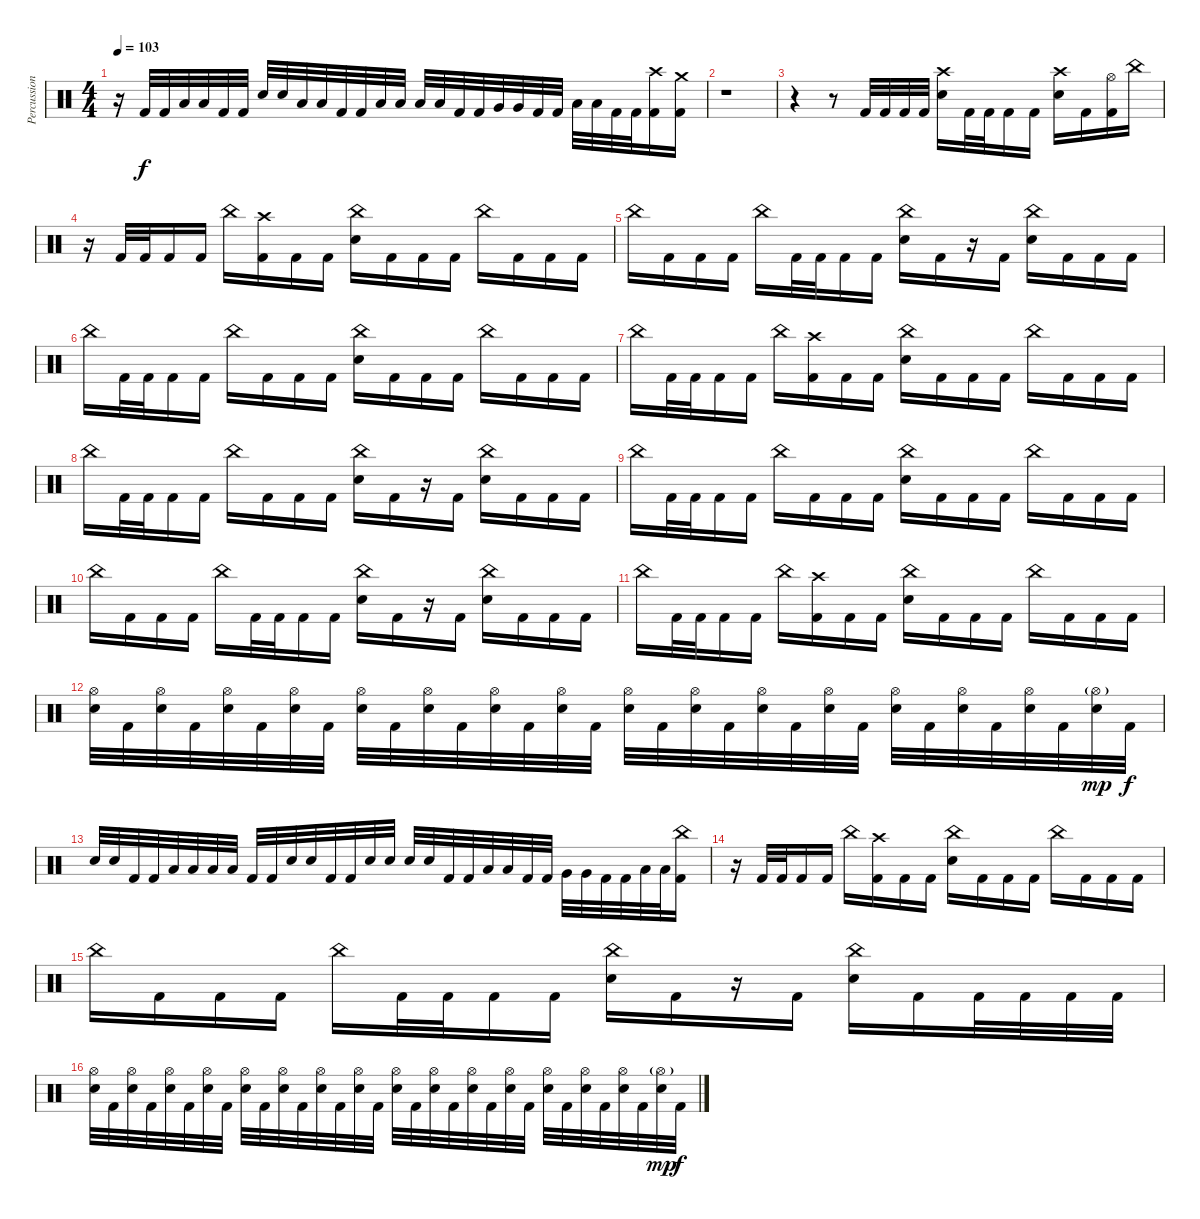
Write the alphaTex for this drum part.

\track ("Percussion" "Percussion") {instrument percussion}
\staff {score}
\articulation defaults
\ts (4 4)
\tempo 103
\clef neutral
\ks c
r.16{dy f} "Kick (hit) 2".32 "Kick (hit) 2".32 "Low Tom (hit)".32 "Low Tom (hit)".32 "Kick (hit) 2".32 "Kick (hit) 2".32 "Snare (hit) 2".32 "Snare (hit) 2".32 "Low Tom (hit)".32 "Low Tom (hit)".32 "Kick (hit) 2".32 "Kick (hit) 2".32 "Low Tom (hit)".32 "Low Tom (hit)".32 "Low Tom (hit)".32 "Low Tom (hit)".32 "Kick (hit) 2".32 "Kick (hit) 2".32 "Very Low Tom (hit)".32 "Very Low Tom (hit)".32 "Kick (hit) 2".32 "Kick (hit) 2".32 "Low Floor Tom (hit)".32 "Low Floor Tom (hit)".32 "Kick (hit) 2".32 "Kick (hit) 2".32 ("Crash high (hit)" "Kick (hit) 2").16 ("Crash medium (hit)" "Kick (hit) 2").16 |
r.1 |
r.4 r.8 "Kick (hit) 2".32 "Kick (hit) 2".32 "Kick (hit) 2".32 "Kick (hit) 2".32 ("Crash high (hit)" "Snare (hit) 2").16 "Kick (hit) 2".32 "Kick (hit) 2".32 "Kick (hit) 2".16 "Kick (hit) 2".16 ("Crash high (hit)" "Snare (hit) 2").16 "Kick (hit) 2".16 ("Hi-Hat (open)" "Kick (hit) 2").16 "China (hit)".16 |
r.16 "Kick (hit) 2".32 "Kick (hit) 2".32 "Kick (hit) 2".16 "Kick (hit) 2".16 "China (hit)".16 ("Crash high (hit)" "Kick (hit) 2").16 "Kick (hit) 2".16 "Kick (hit) 2".16 ("China (hit)" "Snare (hit) 2").16 "Kick (hit) 2".16 "Kick (hit) 2".16 "Kick (hit) 2".16 "China (hit)".16 "Kick (hit) 2".16 "Kick (hit) 2".16 "Kick (hit) 2".16 |
"China (hit)".16 "Kick (hit) 2".16 "Kick (hit) 2".16 "Kick (hit) 2".16 "China (hit)".16 "Kick (hit) 2".32 "Kick (hit) 2".32 "Kick (hit) 2".16 "Kick (hit) 2".16 ("China (hit)" "Snare (hit) 2").16 "Kick (hit) 2".16 r.16 "Kick (hit) 2".16 ("China (hit)" "Snare (hit) 2").16 "Kick (hit) 2".16 "Kick (hit) 2".16 "Kick (hit) 2".16 |
"China (hit)".16 "Kick (hit) 2".32 "Kick (hit) 2".32 "Kick (hit) 2".16 "Kick (hit) 2".16 "China (hit)".16 "Kick (hit) 2".16 "Kick (hit) 2".16 "Kick (hit) 2".16 ("China (hit)" "Snare (hit) 2").16 "Kick (hit) 2".16 "Kick (hit) 2".16 "Kick (hit) 2".16 "China (hit)".16 "Kick (hit) 2".16 "Kick (hit) 2".16 "Kick (hit) 2".16 |
"China (hit)".16 "Kick (hit) 2".32 "Kick (hit) 2".32 "Kick (hit) 2".16 "Kick (hit) 2".16 "China (hit)".16 ("Crash high (hit)" "Kick (hit) 2").16 "Kick (hit) 2".16 "Kick (hit) 2".16 ("China (hit)" "Snare (hit) 2").16 "Kick (hit) 2".16 "Kick (hit) 2".16 "Kick (hit) 2".16 "China (hit)".16 "Kick (hit) 2".16 "Kick (hit) 2".16 "Kick (hit) 2".16 |
"China (hit)".16 "Kick (hit) 2".32 "Kick (hit) 2".32 "Kick (hit) 2".16 "Kick (hit) 2".16 "China (hit)".16 "Kick (hit) 2".16 "Kick (hit) 2".16 "Kick (hit) 2".16 ("China (hit)" "Snare (hit) 2").16 "Kick (hit) 2".16 r.16 "Kick (hit) 2".16 ("China (hit)" "Snare (hit) 2").16 "Kick (hit) 2".16 "Kick (hit) 2".16 "Kick (hit) 2".16 |
"China (hit)".16 "Kick (hit) 2".32 "Kick (hit) 2".32 "Kick (hit) 2".16 "Kick (hit) 2".16 "China (hit)".16 "Kick (hit) 2".16 "Kick (hit) 2".16 "Kick (hit) 2".16 ("China (hit)" "Snare (hit) 2").16 "Kick (hit) 2".16 "Kick (hit) 2".16 "Kick (hit) 2".16 "China (hit)".16 "Kick (hit) 2".16 "Kick (hit) 2".16 "Kick (hit) 2".16 |
"China (hit)".16 "Kick (hit) 2".16 "Kick (hit) 2".16 "Kick (hit) 2".16 "China (hit)".16 "Kick (hit) 2".32 "Kick (hit) 2".32 "Kick (hit) 2".16 "Kick (hit) 2".16 ("China (hit)" "Snare (hit) 2").16 "Kick (hit) 2".16 r.16 "Kick (hit) 2".16 ("China (hit)" "Snare (hit) 2").16 "Kick (hit) 2".16 "Kick (hit) 2".16 "Kick (hit) 2".16 |
"China (hit)".16 "Kick (hit) 2".32 "Kick (hit) 2".32 "Kick (hit) 2".16 "Kick (hit) 2".16 "China (hit)".16 ("Crash high (hit)" "Kick (hit) 2").16 "Kick (hit) 2".16 "Kick (hit) 2".16 ("China (hit)" "Snare (hit) 2").16 "Kick (hit) 2".16 "Kick (hit) 2".16 "Kick (hit) 2".16 "China (hit)".16 "Kick (hit) 2".16 "Kick (hit) 2".16 "Kick (hit) 2".16 |
("Hi-Hat (open)" "Snare (hit) 2").32 "Kick (hit) 2".32 ("Hi-Hat (open)" "Snare (hit) 2").32 "Kick (hit) 2".32 ("Hi-Hat (open)" "Snare (hit) 2").32 "Kick (hit) 2".32 ("Hi-Hat (open)" "Snare (hit) 2").32 "Kick (hit) 2".32 ("Hi-Hat (open)" "Snare (hit) 2").32 "Kick (hit) 2".32 ("Hi-Hat (open)" "Snare (hit) 2").32 "Kick (hit) 2".32 ("Hi-Hat (open)" "Snare (hit) 2").32 "Kick (hit) 2".32 ("Hi-Hat (open)" "Snare (hit) 2").32 "Kick (hit) 2".32 ("Hi-Hat (open)" "Snare (hit) 2").32 "Kick (hit) 2".32 ("Hi-Hat (open)" "Snare (hit) 2").32 "Kick (hit) 2".32 ("Hi-Hat (open)" "Snare (hit) 2").32 "Kick (hit) 2".32 ("Hi-Hat (open)" "Snare (hit) 2").32 "Kick (hit) 2".32 ("Hi-Hat (open)" "Snare (hit) 2").32 "Kick (hit) 2".32 ("Hi-Hat (open)" "Snare (hit) 2").32 "Kick (hit) 2".32 ("Hi-Hat (open)" "Snare (hit) 2").32 "Kick (hit) 2".32 ("Hi-Hat (open)"{g} "Snare (hit) 2").32{dy mp} "Kick (hit) 2".32{dy f} |
"Snare (hit) 2".32 "Snare (hit) 2".32 "Kick (hit) 2".32 "Kick (hit) 2".32 "Low Tom (hit)".32 "Low Tom (hit)".32 "Low Tom (hit)".32 "Low Tom (hit)".32 "Kick (hit) 2".32 "Kick (hit) 2".32 "Snare (hit) 2".32 "Snare (hit) 2".32 "Kick (hit) 2".32 "Kick (hit) 2".32 "Snare (hit) 2".32 "Snare (hit) 2".32 "Snare (hit) 2".32 "Snare (hit) 2".32 "Kick (hit) 2".32 "Kick (hit) 2".32 "Low Tom (hit)".32 "Low Tom (hit)".32 "Kick (hit) 2".32 "Kick (hit) 2".32 "Very Low Tom (hit)".32 "Very Low Tom (hit)".32 "Kick (hit) 2".32 "Kick (hit) 2".32 "Low Floor Tom (hit)".32 "Low Floor Tom (hit)".32 ("China (hit)" "Kick (hit) 2").16 |
r.16 "Kick (hit) 2".32 "Kick (hit) 2".32 "Kick (hit) 2".16 "Kick (hit) 2".16 "China (hit)".16 ("Crash high (hit)" "Kick (hit) 2").16 "Kick (hit) 2".16 "Kick (hit) 2".16 ("China (hit)" "Snare (hit) 2").16 "Kick (hit) 2".16 "Kick (hit) 2".16 "Kick (hit) 2".16 "China (hit)".16 "Kick (hit) 2".16 "Kick (hit) 2".16 "Kick (hit) 2".16 |
"China (hit)".16 "Kick (hit) 2".16 "Kick (hit) 2".16 "Kick (hit) 2".16 "China (hit)".16 "Kick (hit) 2".32 "Kick (hit) 2".32 "Kick (hit) 2".16 "Kick (hit) 2".16 ("China (hit)" "Snare (hit) 2").16 "Kick (hit) 2".16 r.16 "Kick (hit) 2".16 ("China (hit)" "Snare (hit) 2").16 "Kick (hit) 2".16 "Kick (hit) 2".32 "Kick (hit) 2".32 "Kick (hit) 2".32 "Kick (hit) 2".32 |
("Hi-Hat (open)" "Snare (hit) 2").32 "Kick (hit) 2".32 ("Hi-Hat (open)" "Snare (hit) 2").32 "Kick (hit) 2".32 ("Hi-Hat (open)" "Snare (hit) 2").32 "Kick (hit) 2".32 ("Hi-Hat (open)" "Snare (hit) 2").32 "Kick (hit) 2".32 ("Hi-Hat (open)" "Snare (hit) 2").32 "Kick (hit) 2".32 ("Hi-Hat (open)" "Snare (hit) 2").32 "Kick (hit) 2".32 ("Hi-Hat (open)" "Snare (hit) 2").32 "Kick (hit) 2".32 ("Hi-Hat (open)" "Snare (hit) 2").32 "Kick (hit) 2".32 ("Hi-Hat (open)" "Snare (hit) 2").32 "Kick (hit) 2".32 ("Hi-Hat (open)" "Snare (hit) 2").32 "Kick (hit) 2".32 ("Hi-Hat (open)" "Snare (hit) 2").32 "Kick (hit) 2".32 ("Hi-Hat (open)" "Snare (hit) 2").32 "Kick (hit) 2".32 ("Hi-Hat (open)" "Snare (hit) 2").32 "Kick (hit) 2".32 ("Hi-Hat (open)" "Snare (hit) 2").32 "Kick (hit) 2".32 ("Hi-Hat (open)" "Snare (hit) 2").32 "Kick (hit) 2".32 ("Hi-Hat (open)"{g} "Snare (hit) 2").32{dy mp} "Kick (hit) 2".32{dy f}
